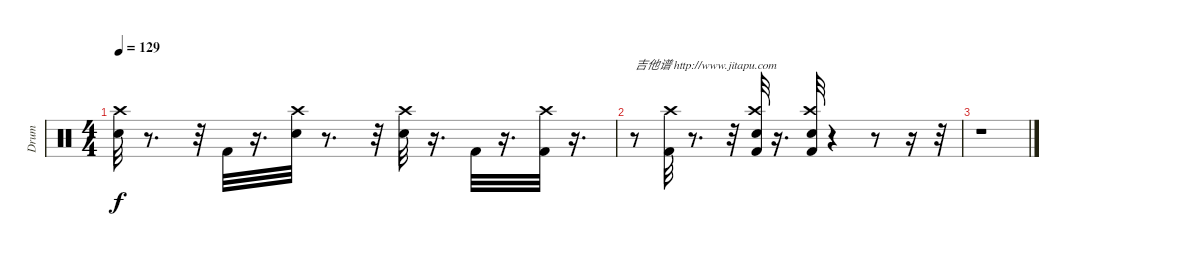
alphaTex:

\track ("Drum" "Drum") {instrument percussion}
\staff {score}
\articulation defaults
\ts (4 4)
\tempo 129
\clef neutral
\ks c
("Snare (hit) 2" "Crash high (hit)").32{dy f} r.8{d} r.32 "Kick (hit) 2".32 r.16{d} ("Snare (hit) 2" "Crash high (hit)").32 r.8{d} r.32 ("Snare (hit) 2" "Crash high (hit)").32 r.16{d} "Kick (hit) 2".32 r.16{d} ("Crash high (hit)" "Kick (hit) 2").32 r.16{d} |
r.8{txt "吉他谱 http://www.jitapu.com"} ("Kick (hit) 2" "Crash high (hit)").32 r.8{d} r.32 ("Snare (hit) 2" "Crash high (hit)" "Kick (hit) 2").32 r.16{d} ("Kick (hit) 2" "Snare (hit) 2" "Crash high (hit)").32 r.4 r.8 r.16 r.32 |
r.1
